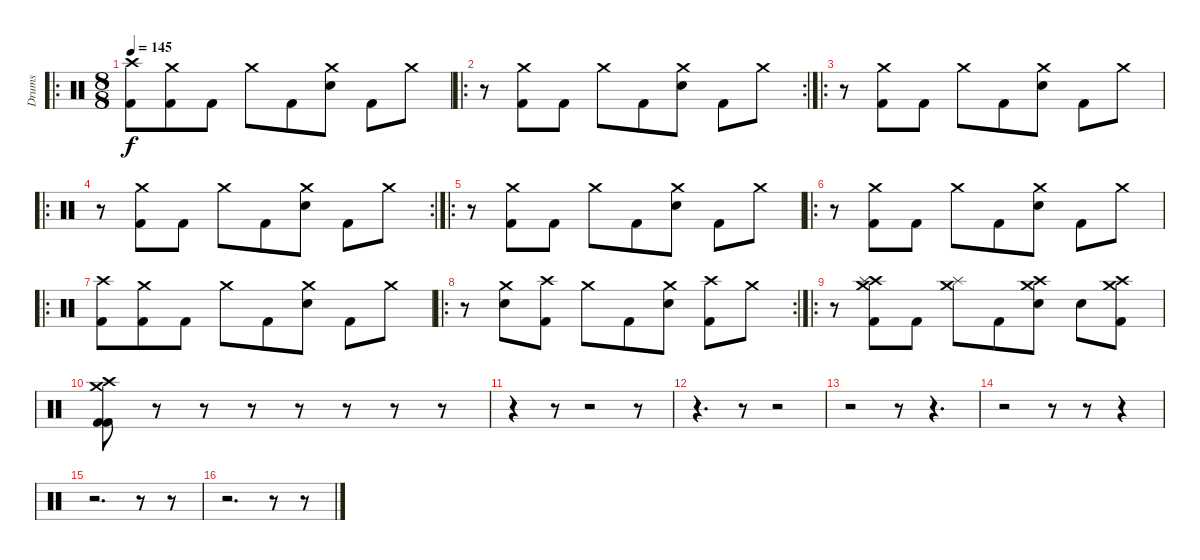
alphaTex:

\track ("Drums" "Drums") {instrument percussion}
\staff {score}
\articulation defaults
\ro
\ts (8 8)
\tempo 145
\clef neutral
\ks c
("Crash high (hit)" "Kick (hit) 2").8{dy f} ("Crash medium (hit)" "Kick (hit) 2").8 "Kick (hit) 2".8 "Crash medium (hit)".8 "Kick (hit) 2".8 ("Crash medium (hit)" "Electric Snare (hit)").8 "Kick (hit) 2".8 "Crash medium (hit)".8 |
\ro
\rc 2
r.8 ("Crash medium (hit)" "Kick (hit) 2").8 "Kick (hit) 2".8 "Crash medium (hit)".8 "Kick (hit) 2".8 ("Crash medium (hit)" "Electric Snare (hit)").8 "Kick (hit) 2".8 "Crash medium (hit)".8 |
\ro
r.8 ("Crash medium (hit)" "Kick (hit) 2").8 "Kick (hit) 2".8 "Crash medium (hit)".8 "Kick (hit) 2".8 ("Crash medium (hit)" "Electric Snare (hit)").8 "Kick (hit) 2".8 "Crash medium (hit)".8 |
\ro
\rc 2
r.8 ("Crash medium (hit)" "Kick (hit) 2").8 "Kick (hit) 2".8 "Crash medium (hit)".8 "Kick (hit) 2".8 ("Crash medium (hit)" "Electric Snare (hit)").8 "Kick (hit) 2".8 "Crash medium (hit)".8 |
\ro
r.8 ("Crash medium (hit)" "Kick (hit) 2").8 "Kick (hit) 2".8 "Crash medium (hit)".8 "Kick (hit) 2".8 ("Crash medium (hit)" "Electric Snare (hit)").8 "Kick (hit) 2".8 "Crash medium (hit)".8 |
\ro
r.8 ("Crash medium (hit)" "Kick (hit) 2").8 "Kick (hit) 2".8 "Crash medium (hit)".8 "Kick (hit) 2".8 ("Crash medium (hit)" "Electric Snare (hit)").8 "Kick (hit) 2".8 "Crash medium (hit)".8 |
\ro
("Crash high (hit)" "Kick (hit) 2").8 ("Crash medium (hit)" "Kick (hit) 2").8 "Kick (hit) 2".8 "Crash medium (hit)".8 "Kick (hit) 2".8 ("Crash medium (hit)" "Electric Snare (hit)").8 "Kick (hit) 2".8 "Crash medium (hit)".8 |
\ro
\rc 2
r.8 ("Crash medium (hit)" "Electric Snare (hit)").8 ("Crash high (hit)" "Kick (hit) 2").8 "Crash medium (hit)".8 "Kick (hit) 2".8 ("Crash medium (hit)" "Electric Snare (hit)").8 ("Crash high (hit)" "Kick (hit) 2").8 "Crash medium (hit)".8 |
\ro
r.8 ("Crash high (hit)" "Crash medium (hit)" "Splash (hit)" "Kick (hit) 2").8 "Kick (hit) 2".8 ("Splash (hit)" "Crash medium (hit)").8 "Kick (hit) 2".8 ("Crash high (hit)" "Crash medium (hit)" "Electric Snare (hit)").8 "Electric Snare (hit)".8 ("Crash high (hit)" "Crash medium (hit)" "Kick (hit) 2").8 |
("Crash high (hit)" "Crash medium (hit)" "Kick (hit) 2" "Kick (hit) 2").8 r.8 r.8 r.8 r.8 r.8 r.8 r.8 |
r.4 r.8 r.2 r.8 |
r.4{d} r.8 r.2 |
r.2 r.8 r.4{d} |
r.2 r.8 r.8 r.4 |
r.2{d} r.8 r.8 |
r.2{d} r.8 r.8
